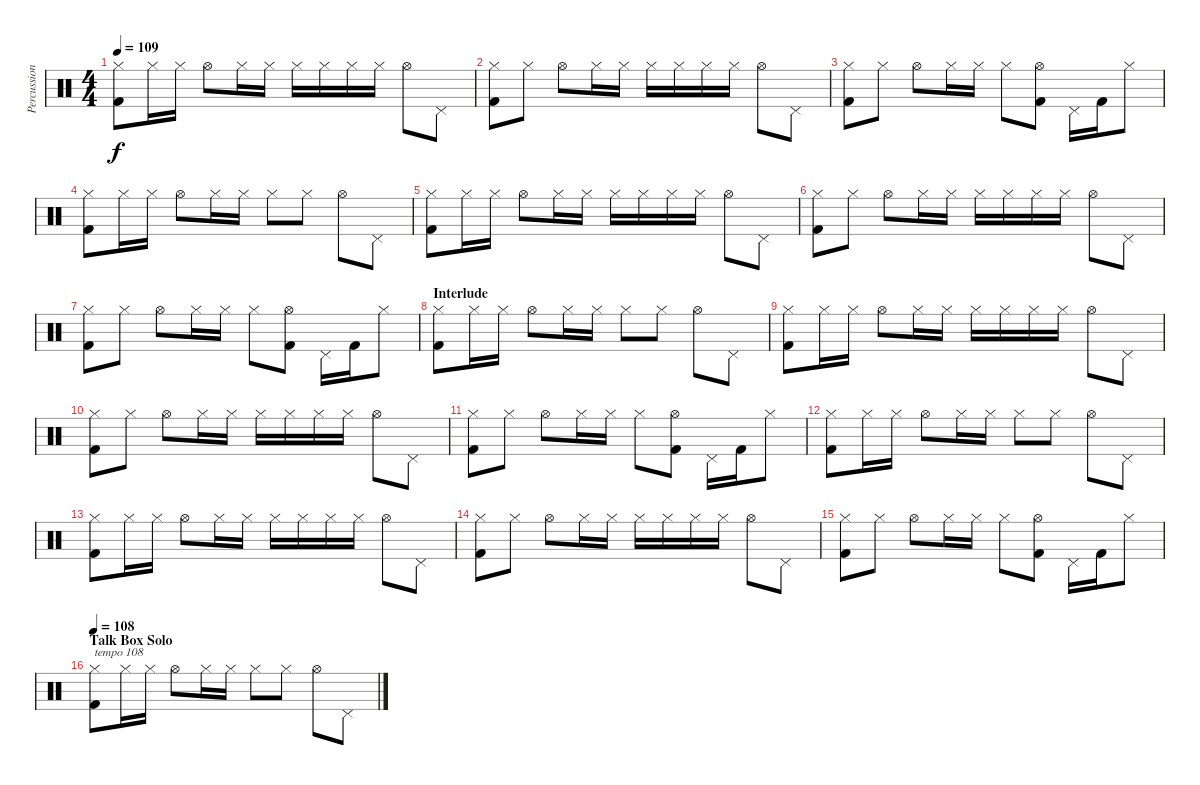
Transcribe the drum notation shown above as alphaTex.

\track ("Percussion" "Percussion") {instrument percussion}
\staff {score}
\articulation defaults
\ts (4 4)
\tempo 109
\clef neutral
\ks c
("Hi-Hat (closed)" "Kick (hit) 2").8{dy f} "Hi-Hat (closed)".16 "Hi-Hat (closed)".16 "Hi-Hat (open)".8 "Hi-Hat (closed)".16 "Hi-Hat (closed)".16 "Hi-Hat (closed)".16 "Hi-Hat (closed)".16 "Hi-Hat (closed)".16 "Hi-Hat (closed)".16 "Hi-Hat (open)".8 "Pedal Hi-Hat (hit)".8 |
("Hi-Hat (closed)" "Kick (hit) 2").8 "Hi-Hat (closed)".8 "Hi-Hat (open)".8 "Hi-Hat (closed)".16 "Hi-Hat (closed)".16 "Hi-Hat (closed)".16 "Hi-Hat (closed)".16 "Hi-Hat (closed)".16 "Hi-Hat (closed)".16 "Hi-Hat (open)".8 "Pedal Hi-Hat (hit)".8 |
("Hi-Hat (closed)" "Kick (hit) 2").8 "Hi-Hat (closed)".8 "Hi-Hat (open)".8 "Hi-Hat (closed)".16 "Hi-Hat (closed)".16 "Hi-Hat (closed)".8 ("Hi-Hat (open)" "Kick (hit) 2").8 "Pedal Hi-Hat (hit)".16 "Kick (hit) 2".16 "Hi-Hat (closed)".8 |
("Hi-Hat (closed)" "Kick (hit) 2").8{volume 7} "Hi-Hat (closed)".16 "Hi-Hat (closed)".16 "Hi-Hat (open)".8 "Hi-Hat (closed)".16 "Hi-Hat (closed)".16 "Hi-Hat (closed)".8 "Hi-Hat (closed)".8 "Hi-Hat (open)".8 "Pedal Hi-Hat (hit)".8 |
("Hi-Hat (closed)" "Kick (hit) 2").8 "Hi-Hat (closed)".16 "Hi-Hat (closed)".16 "Hi-Hat (open)".8 "Hi-Hat (closed)".16 "Hi-Hat (closed)".16 "Hi-Hat (closed)".16 "Hi-Hat (closed)".16 "Hi-Hat (closed)".16 "Hi-Hat (closed)".16 "Hi-Hat (open)".8 "Pedal Hi-Hat (hit)".8 |
("Hi-Hat (closed)" "Kick (hit) 2").8 "Hi-Hat (closed)".8 "Hi-Hat (open)".8 "Hi-Hat (closed)".16 "Hi-Hat (closed)".16 "Hi-Hat (closed)".16 "Hi-Hat (closed)".16 "Hi-Hat (closed)".16 "Hi-Hat (closed)".16 "Hi-Hat (open)".8 "Pedal Hi-Hat (hit)".8 |
("Hi-Hat (closed)" "Kick (hit) 2").8 "Hi-Hat (closed)".8 "Hi-Hat (open)".8 "Hi-Hat (closed)".16 "Hi-Hat (closed)".16 "Hi-Hat (closed)".8 ("Hi-Hat (open)" "Kick (hit) 2").8 "Pedal Hi-Hat (hit)".16 "Kick (hit) 2".16 "Hi-Hat (closed)".8 |
\section ("" "Interlude")
("Hi-Hat (closed)" "Kick (hit) 2").8{volume 7} "Hi-Hat (closed)".16 "Hi-Hat (closed)".16 "Hi-Hat (open)".8 "Hi-Hat (closed)".16 "Hi-Hat (closed)".16 "Hi-Hat (closed)".8 "Hi-Hat (closed)".8 "Hi-Hat (open)".8 "Pedal Hi-Hat (hit)".8 |
("Hi-Hat (closed)" "Kick (hit) 2").8 "Hi-Hat (closed)".16 "Hi-Hat (closed)".16 "Hi-Hat (open)".8 "Hi-Hat (closed)".16 "Hi-Hat (closed)".16 "Hi-Hat (closed)".16 "Hi-Hat (closed)".16 "Hi-Hat (closed)".16 "Hi-Hat (closed)".16 "Hi-Hat (open)".8 "Pedal Hi-Hat (hit)".8 |
("Hi-Hat (closed)" "Kick (hit) 2").8 "Hi-Hat (closed)".8 "Hi-Hat (open)".8 "Hi-Hat (closed)".16 "Hi-Hat (closed)".16 "Hi-Hat (closed)".16 "Hi-Hat (closed)".16 "Hi-Hat (closed)".16 "Hi-Hat (closed)".16 "Hi-Hat (open)".8 "Pedal Hi-Hat (hit)".8 |
("Hi-Hat (closed)" "Kick (hit) 2").8 "Hi-Hat (closed)".8 "Hi-Hat (open)".8 "Hi-Hat (closed)".16 "Hi-Hat (closed)".16 "Hi-Hat (closed)".8 ("Hi-Hat (open)" "Kick (hit) 2").8 "Pedal Hi-Hat (hit)".16 "Kick (hit) 2".16 "Hi-Hat (closed)".8 |
("Hi-Hat (closed)" "Kick (hit) 2").8{volume 7} "Hi-Hat (closed)".16 "Hi-Hat (closed)".16 "Hi-Hat (open)".8 "Hi-Hat (closed)".16 "Hi-Hat (closed)".16 "Hi-Hat (closed)".8 "Hi-Hat (closed)".8 "Hi-Hat (open)".8 "Pedal Hi-Hat (hit)".8 |
("Hi-Hat (closed)" "Kick (hit) 2").8 "Hi-Hat (closed)".16 "Hi-Hat (closed)".16 "Hi-Hat (open)".8 "Hi-Hat (closed)".16 "Hi-Hat (closed)".16 "Hi-Hat (closed)".16 "Hi-Hat (closed)".16 "Hi-Hat (closed)".16 "Hi-Hat (closed)".16 "Hi-Hat (open)".8 "Pedal Hi-Hat (hit)".8 |
("Hi-Hat (closed)" "Kick (hit) 2").8 "Hi-Hat (closed)".8 "Hi-Hat (open)".8 "Hi-Hat (closed)".16 "Hi-Hat (closed)".16 "Hi-Hat (closed)".16 "Hi-Hat (closed)".16 "Hi-Hat (closed)".16 "Hi-Hat (closed)".16 "Hi-Hat (open)".8 "Pedal Hi-Hat (hit)".8 |
("Hi-Hat (closed)" "Kick (hit) 2").8 "Hi-Hat (closed)".8 "Hi-Hat (open)".8 "Hi-Hat (closed)".16 "Hi-Hat (closed)".16 "Hi-Hat (closed)".8 ("Hi-Hat (open)" "Kick (hit) 2").8 "Pedal Hi-Hat (hit)".16 "Kick (hit) 2".16 "Hi-Hat (closed)".8 |
\section ("" "Talk Box Solo")
\tempo 108
("Hi-Hat (closed)" "Kick (hit) 2").8{txt "tempo 108" volume 7} "Hi-Hat (closed)".16 "Hi-Hat (closed)".16 "Hi-Hat (open)".8 "Hi-Hat (closed)".16 "Hi-Hat (closed)".16 "Hi-Hat (closed)".8 "Hi-Hat (closed)".8 "Hi-Hat (open)".8 "Pedal Hi-Hat (hit)".8
